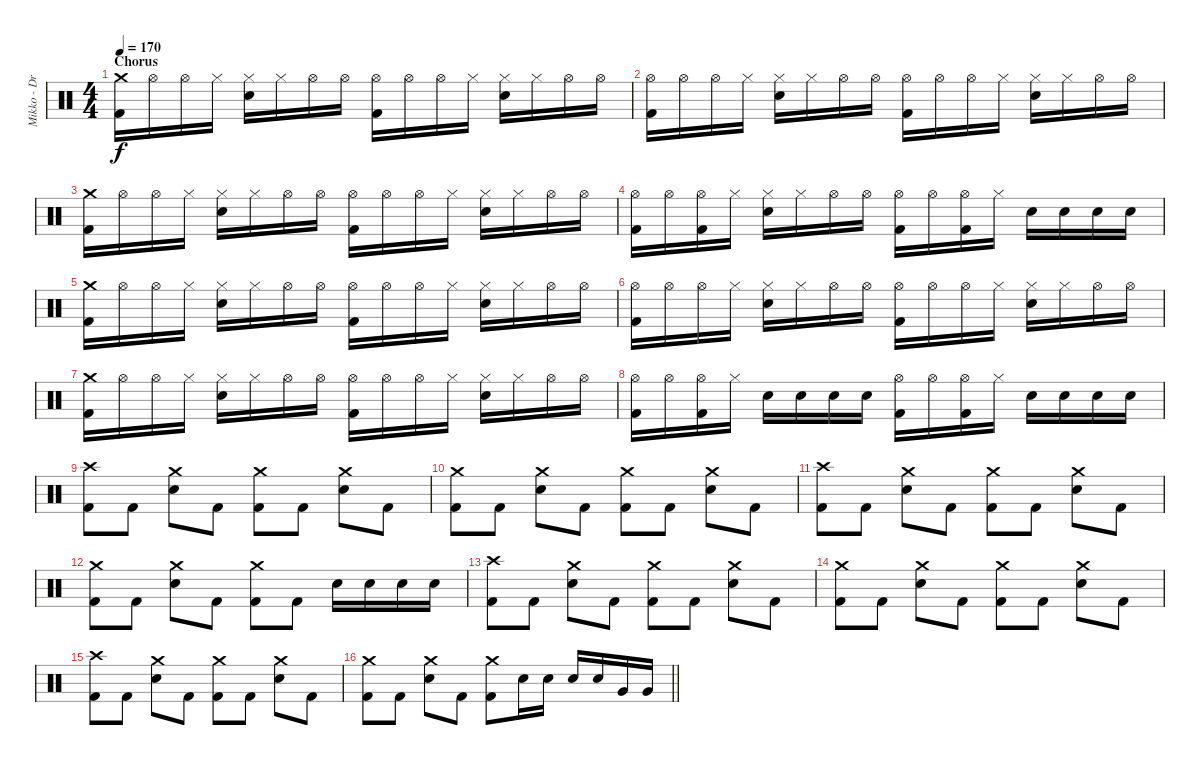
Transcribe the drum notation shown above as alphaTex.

\track ("Mikko - Drums" "Mikko - Dr") {instrument percussion}
\staff {score}
\articulation defaults
\ts (4 4)
\section ("" "Chorus")
\tempo 170
\clef neutral
\ks c
("Crash medium (hit)" "Kick (hit) 2").16{dy f} "Hi-Hat (open)".16 "Hi-Hat (open)".16 "Hi-Hat (closed)".16 ("Hi-Hat (closed)" "Snare (hit) 2").16 "Hi-Hat (closed)".16 "Hi-Hat (open)".16 "Hi-Hat (open)".16 ("Hi-Hat (open)" "Kick (hit) 2").16 "Hi-Hat (open)".16 "Hi-Hat (open)".16 "Hi-Hat (closed)".16 ("Hi-Hat (closed)" "Snare (hit) 2").16 "Hi-Hat (closed)".16 "Hi-Hat (open)".16 "Hi-Hat (open)".16 |
("Hi-Hat (open)" "Kick (hit) 2").16 "Hi-Hat (open)".16 "Hi-Hat (open)".16 "Hi-Hat (closed)".16 ("Hi-Hat (closed)" "Snare (hit) 2").16 "Hi-Hat (closed)".16 "Hi-Hat (open)".16 "Hi-Hat (open)".16 ("Hi-Hat (open)" "Kick (hit) 2").16 "Hi-Hat (open)".16 "Hi-Hat (open)".16 "Hi-Hat (closed)".16 ("Hi-Hat (closed)" "Snare (hit) 2").16 "Hi-Hat (closed)".16 "Hi-Hat (open)".16 "Hi-Hat (open)".16 |
("Crash medium (hit)" "Kick (hit) 2").16 "Hi-Hat (open)".16 "Hi-Hat (open)".16 "Hi-Hat (closed)".16 ("Hi-Hat (closed)" "Snare (hit) 2").16 "Hi-Hat (closed)".16 "Hi-Hat (open)".16 "Hi-Hat (open)".16 ("Hi-Hat (open)" "Kick (hit) 2").16 "Hi-Hat (open)".16 "Hi-Hat (open)".16 "Hi-Hat (closed)".16 ("Hi-Hat (closed)" "Snare (hit) 2").16 "Hi-Hat (closed)".16 "Hi-Hat (open)".16 "Hi-Hat (open)".16 |
("Hi-Hat (open)" "Kick (hit) 2").16 "Hi-Hat (open)".16 ("Hi-Hat (open)" "Kick (hit) 2").16 "Hi-Hat (closed)".16 ("Hi-Hat (closed)" "Snare (hit) 2").16 "Hi-Hat (closed)".16 "Hi-Hat (open)".16 "Hi-Hat (open)".16 ("Hi-Hat (open)" "Kick (hit) 2").16 "Hi-Hat (open)".16 ("Hi-Hat (open)" "Kick (hit) 2").16 "Hi-Hat (closed)".16 "Snare (hit) 2".16 "Snare (hit) 2".16 "Snare (hit) 2".16 "Snare (hit) 2".16 |
("Crash medium (hit)" "Kick (hit) 2").16 "Hi-Hat (open)".16 "Hi-Hat (open)".16 "Hi-Hat (closed)".16 ("Hi-Hat (closed)" "Snare (hit) 2").16 "Hi-Hat (closed)".16 "Hi-Hat (open)".16 "Hi-Hat (open)".16 ("Hi-Hat (open)" "Kick (hit) 2").16 "Hi-Hat (open)".16 "Hi-Hat (open)".16 "Hi-Hat (closed)".16 ("Hi-Hat (closed)" "Snare (hit) 2").16 "Hi-Hat (closed)".16 "Hi-Hat (open)".16 "Hi-Hat (open)".16 |
("Hi-Hat (open)" "Kick (hit) 2").16 "Hi-Hat (open)".16 "Hi-Hat (open)".16 "Hi-Hat (closed)".16 ("Hi-Hat (closed)" "Snare (hit) 2").16 "Hi-Hat (closed)".16 "Hi-Hat (open)".16 "Hi-Hat (open)".16 ("Hi-Hat (open)" "Kick (hit) 2").16 "Hi-Hat (open)".16 "Hi-Hat (open)".16 "Hi-Hat (closed)".16 ("Hi-Hat (closed)" "Snare (hit) 2").16 "Hi-Hat (closed)".16 "Hi-Hat (open)".16 "Hi-Hat (open)".16 |
("Crash medium (hit)" "Kick (hit) 2").16 "Hi-Hat (open)".16 "Hi-Hat (open)".16 "Hi-Hat (closed)".16 ("Hi-Hat (closed)" "Snare (hit) 2").16 "Hi-Hat (closed)".16 "Hi-Hat (open)".16 "Hi-Hat (open)".16 ("Hi-Hat (open)" "Kick (hit) 2").16 "Hi-Hat (open)".16 "Hi-Hat (open)".16 "Hi-Hat (closed)".16 ("Hi-Hat (closed)" "Snare (hit) 2").16 "Hi-Hat (closed)".16 "Hi-Hat (open)".16 "Hi-Hat (open)".16 |
("Hi-Hat (open)" "Kick (hit) 2").16 "Hi-Hat (open)".16 ("Hi-Hat (open)" "Kick (hit) 2").16 "Hi-Hat (closed)".16 "Snare (hit) 2".16 "Snare (hit) 2".16 "Snare (hit) 2".16 "Snare (hit) 2".16 ("Hi-Hat (open)" "Kick (hit) 2").16 "Hi-Hat (open)".16 ("Hi-Hat (open)" "Kick (hit) 2").16 "Hi-Hat (closed)".16 "Snare (hit) 2".16 "Snare (hit) 2".16 "Snare (hit) 2".16 "Snare (hit) 2".16 |
("Crash high (hit)" "Kick (hit) 2").8 "Kick (hit) 2".8 ("Crash medium (hit)" "Snare (hit) 2").8 "Kick (hit) 2".8 ("Crash medium (hit)" "Kick (hit) 2").8 "Kick (hit) 2".8 ("Crash medium (hit)" "Snare (hit) 2").8 "Kick (hit) 2".8 |
("Crash medium (hit)" "Kick (hit) 2").8 "Kick (hit) 2".8 ("Crash medium (hit)" "Snare (hit) 2").8 "Kick (hit) 2".8 ("Crash medium (hit)" "Kick (hit) 2").8 "Kick (hit) 2".8 ("Crash medium (hit)" "Snare (hit) 2").8 "Kick (hit) 2".8 |
("Crash high (hit)" "Kick (hit) 2").8 "Kick (hit) 2".8 ("Crash medium (hit)" "Snare (hit) 2").8 "Kick (hit) 2".8 ("Crash medium (hit)" "Kick (hit) 2").8 "Kick (hit) 2".8 ("Crash medium (hit)" "Snare (hit) 2").8 "Kick (hit) 2".8 |
("Crash medium (hit)" "Kick (hit) 2").8 "Kick (hit) 2".8 ("Crash medium (hit)" "Snare (hit) 2").8 "Kick (hit) 2".8 ("Crash medium (hit)" "Kick (hit) 2").8 "Kick (hit) 2".8 "Snare (hit) 2".16 "Snare (hit) 2".16 "Snare (hit) 2".16 "Snare (hit) 2".16 |
("Crash high (hit)" "Kick (hit) 2").8 "Kick (hit) 2".8 ("Crash medium (hit)" "Snare (hit) 2").8 "Kick (hit) 2".8 ("Crash medium (hit)" "Kick (hit) 2").8 "Kick (hit) 2".8 ("Crash medium (hit)" "Snare (hit) 2").8 "Kick (hit) 2".8 |
("Crash medium (hit)" "Kick (hit) 2").8 "Kick (hit) 2".8 ("Crash medium (hit)" "Snare (hit) 2").8 "Kick (hit) 2".8 ("Crash medium (hit)" "Kick (hit) 2").8 "Kick (hit) 2".8 ("Crash medium (hit)" "Snare (hit) 2").8 "Kick (hit) 2".8 |
("Crash high (hit)" "Kick (hit) 2").8 "Kick (hit) 2".8 ("Crash medium (hit)" "Snare (hit) 2").8 "Kick (hit) 2".8 ("Crash medium (hit)" "Kick (hit) 2").8 "Kick (hit) 2".8 ("Crash medium (hit)" "Snare (hit) 2").8 "Kick (hit) 2".8 |
\barLineRight lightlight
("Crash medium (hit)" "Kick (hit) 2").8 "Kick (hit) 2".8 ("Crash medium (hit)" "Snare (hit) 2").8 "Kick (hit) 2".8 ("Crash medium (hit)" "Kick (hit) 2").8 "Snare (hit) 2".16 "Snare (hit) 2".16 "Snare (hit) 2".16 "Snare (hit) 2".16 "Very Low Tom (hit)".16 "Very Low Tom (hit)".16
